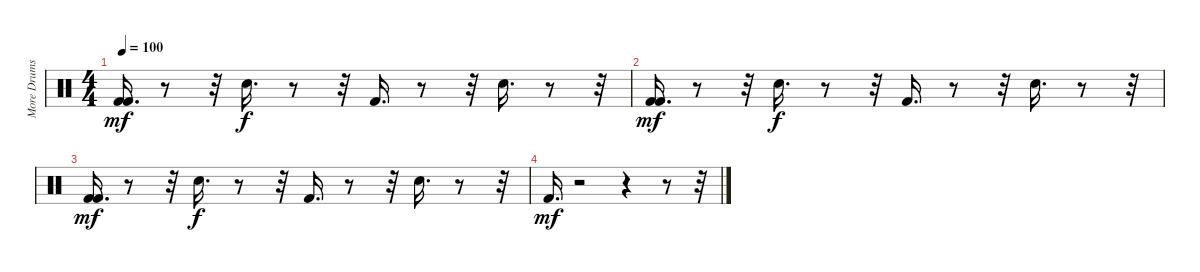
\track ("More Drums" "More Drums") {instrument percussion}
\staff {score}
\articulation defaults
\ts (4 4)
\tempo 100
\clef neutral
\ks c
("Kick (hit) 2" "Kick (hit) 2").16{d dy mf volume 3} r.8 r.32 "Electric Snare (hit)".16{d dy f volume 3} r.8 r.32 "Kick (hit) 2".16{d volume 2} r.8 r.32 "Electric Snare (hit)".16{d volume 2} r.8 r.32 |
("Kick (hit) 2" "Kick (hit) 2").16{d dy mf volume 1} r.8 r.32 "Electric Snare (hit)".16{d dy f volume 1} r.8 r.32 "Kick (hit) 2".16{d volume 0} r.8 r.32 "Electric Snare (hit)".16{d volume 0} r.8 r.32 |
("Kick (hit) 2" "Kick (hit) 2").16{d dy mf} r.8 r.32 "Electric Snare (hit)".16{d dy f} r.8 r.32 "Kick (hit) 2".16{d} r.8 r.32 "Electric Snare (hit)".16{d} r.8 r.32 |
"Kick (hit) 2".16{d dy mf} r.2 r.4 r.8 r.32
